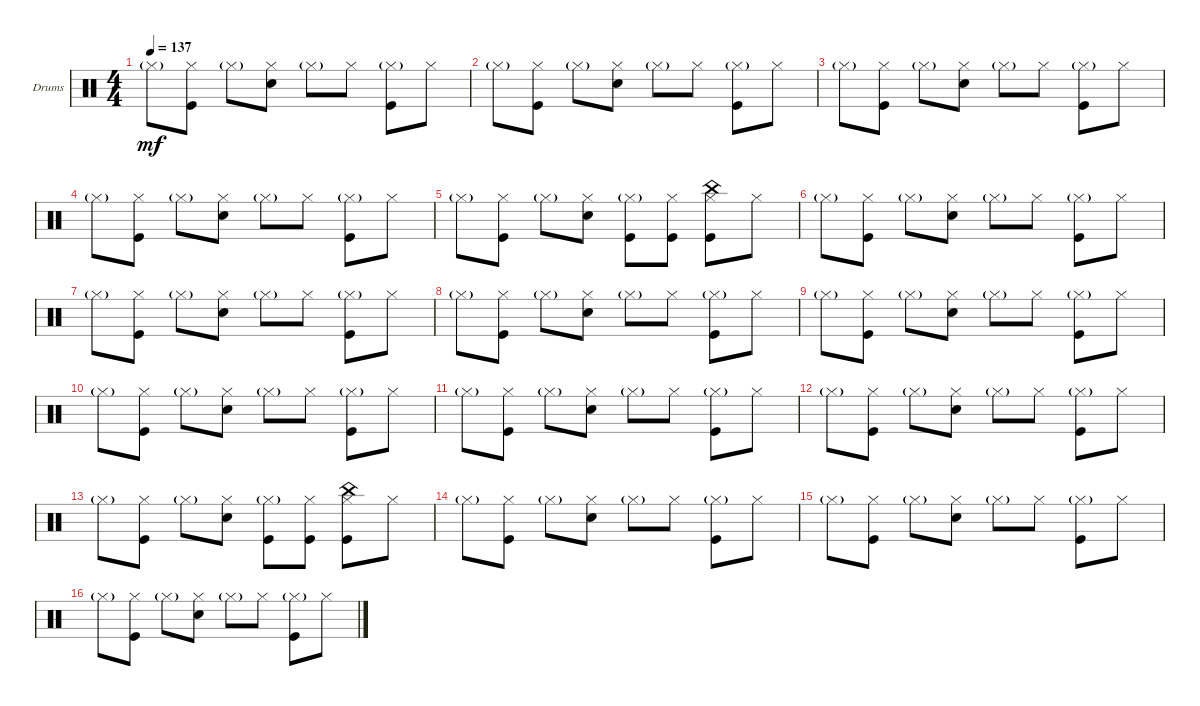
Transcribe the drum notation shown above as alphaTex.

\defaultSystemsLayout 4
\bracketExtendMode groupsimilarinstruments
\firstSystemTrackNameOrientation horizontal
\otherSystemsTrackNameOrientation horizontal
\track ("Valverde Drums" "Drums") {instrument percussion}
\staff {score}
\articulation defaults
\ts (4 4)
\tempo 137
\clef neutral
\ks c "Hi-Hat (closed)"{g}.8{dy mf}
("Hi-Hat (closed)" "Kick (hit)").8 "Hi-Hat (closed)"{g}.8 ("Hi-Hat (closed)" "Snare (hit) 2").8 "Hi-Hat (closed)"{g}.8 "Hi-Hat (closed)".8 ("Hi-Hat (closed)"{g} "Kick (hit)").8 "Hi-Hat (closed)".8 |
\scale
0.273828 "Hi-Hat (closed)"{g}.8 ("Hi-Hat (closed)" "Kick (hit)").8 "Hi-Hat (closed)"{g}.8 ("Hi-Hat (closed)" "Snare (hit) 2").8 "Hi-Hat (closed)"{g}.8 "Hi-Hat (closed)".8 ("Hi-Hat (closed)"{g} "Kick (hit)").8 "Hi-Hat (closed)".8 |
\scale
0.242057 "Hi-Hat (closed)"{g}.8 ("Hi-Hat (closed)" "Kick (hit)").8 "Hi-Hat (closed)"{g}.8 ("Hi-Hat (closed)" "Snare (hit) 2").8 "Hi-Hat (closed)"{g}.8 "Hi-Hat (closed)".8 ("Hi-Hat (closed)"{g} "Kick (hit)").8 "Hi-Hat (closed)".8 |
\scale
0.242057 "Hi-Hat (closed)"{g}.8 ("Hi-Hat (closed)" "Kick (hit)").8 "Hi-Hat (closed)"{g}.8 ("Hi-Hat (closed)" "Snare (hit) 2").8 "Hi-Hat (closed)"{g}.8 "Hi-Hat (closed)".8 ("Hi-Hat (closed)"{g} "Kick (hit)").8 "Hi-Hat (closed)".8 |
\scale
0.242057 "Hi-Hat (closed)"{g}.8 ("Hi-Hat (closed)" "Kick (hit)").8 "Hi-Hat (closed)"{g}.8 ("Hi-Hat (closed)" "Snare (hit) 2").8 ("Hi-Hat (closed)"{g} "Kick (hit)").8 ("Hi-Hat (closed)" "Kick (hit)").8 ("Hi-Hat (closed)" "China (hit)" "Kick (hit)").8 "Hi-Hat (closed)".8 |
"Hi-Hat (closed)"{g}.8 ("Hi-Hat (closed)" "Kick (hit)").8 "Hi-Hat (closed)"{g}.8 ("Hi-Hat (closed)" "Snare (hit) 2").8 "Hi-Hat (closed)"{g}.8 "Hi-Hat (closed)".8 ("Hi-Hat (closed)"{g} "Kick (hit)").8 "Hi-Hat (closed)".8 |
"Hi-Hat (closed)"{g}.8 ("Hi-Hat (closed)" "Kick (hit)").8 "Hi-Hat (closed)"{g}.8 ("Hi-Hat (closed)" "Snare (hit) 2").8 "Hi-Hat (closed)"{g}.8 "Hi-Hat (closed)".8 ("Hi-Hat (closed)"{g} "Kick (hit)").8 "Hi-Hat (closed)".8 |
"Hi-Hat (closed)"{g}.8 ("Hi-Hat (closed)" "Kick (hit)").8 "Hi-Hat (closed)"{g}.8 ("Hi-Hat (closed)" "Snare (hit) 2").8 "Hi-Hat (closed)"{g}.8 "Hi-Hat (closed)".8 ("Hi-Hat (closed)"{g} "Kick (hit)").8 "Hi-Hat (closed)".8 |
"Hi-Hat (closed)"{g}.8 ("Hi-Hat (closed)" "Kick (hit)").8 "Hi-Hat (closed)"{g}.8 ("Hi-Hat (closed)" "Snare (hit) 2").8 "Hi-Hat (closed)"{g}.8 "Hi-Hat (closed)".8 ("Hi-Hat (closed)"{g} "Kick (hit)").8 "Hi-Hat (closed)".8 |
"Hi-Hat (closed)"{g}.8 ("Hi-Hat (closed)" "Kick (hit)").8 "Hi-Hat (closed)"{g}.8 ("Hi-Hat (closed)" "Snare (hit) 2").8 "Hi-Hat (closed)"{g}.8 "Hi-Hat (closed)".8 ("Hi-Hat (closed)"{g} "Kick (hit)").8 "Hi-Hat (closed)".8 |
"Hi-Hat (closed)"{g}.8 ("Hi-Hat (closed)" "Kick (hit)").8 "Hi-Hat (closed)"{g}.8 ("Hi-Hat (closed)" "Snare (hit) 2").8 "Hi-Hat (closed)"{g}.8 "Hi-Hat (closed)".8 ("Hi-Hat (closed)"{g} "Kick (hit)").8 "Hi-Hat (closed)".8 |
"Hi-Hat (closed)"{g}.8 ("Hi-Hat (closed)" "Kick (hit)").8 "Hi-Hat (closed)"{g}.8 ("Hi-Hat (closed)" "Snare (hit) 2").8 "Hi-Hat (closed)"{g}.8 "Hi-Hat (closed)".8 ("Hi-Hat (closed)"{g} "Kick (hit)").8 "Hi-Hat (closed)".8 |
"Hi-Hat (closed)"{g}.8 ("Hi-Hat (closed)" "Kick (hit)").8 "Hi-Hat (closed)"{g}.8 ("Hi-Hat (closed)" "Snare (hit) 2").8 ("Hi-Hat (closed)"{g} "Kick (hit)").8 ("Hi-Hat (closed)" "Kick (hit)").8 ("Hi-Hat (closed)" "China (hit)" "Kick (hit)").8 "Hi-Hat (closed)".8 |
"Hi-Hat (closed)"{g}.8 ("Hi-Hat (closed)" "Kick (hit)").8 "Hi-Hat (closed)"{g}.8 ("Hi-Hat (closed)" "Snare (hit) 2").8 "Hi-Hat (closed)"{g}.8 "Hi-Hat (closed)".8 ("Hi-Hat (closed)"{g} "Kick (hit)").8 "Hi-Hat (closed)".8 |
"Hi-Hat (closed)"{g}.8 ("Hi-Hat (closed)" "Kick (hit)").8 "Hi-Hat (closed)"{g}.8 ("Hi-Hat (closed)" "Snare (hit) 2").8 "Hi-Hat (closed)"{g}.8 "Hi-Hat (closed)".8 ("Hi-Hat (closed)"{g} "Kick (hit)").8 "Hi-Hat (closed)".8 |
"Hi-Hat (closed)"{g}.8 ("Hi-Hat (closed)" "Kick (hit)").8 "Hi-Hat (closed)"{g}.8 ("Hi-Hat (closed)" "Snare (hit) 2").8 "Hi-Hat (closed)"{g}.8 "Hi-Hat (closed)".8 ("Hi-Hat (closed)"{g} "Kick (hit)").8 "Hi-Hat (closed)".8
